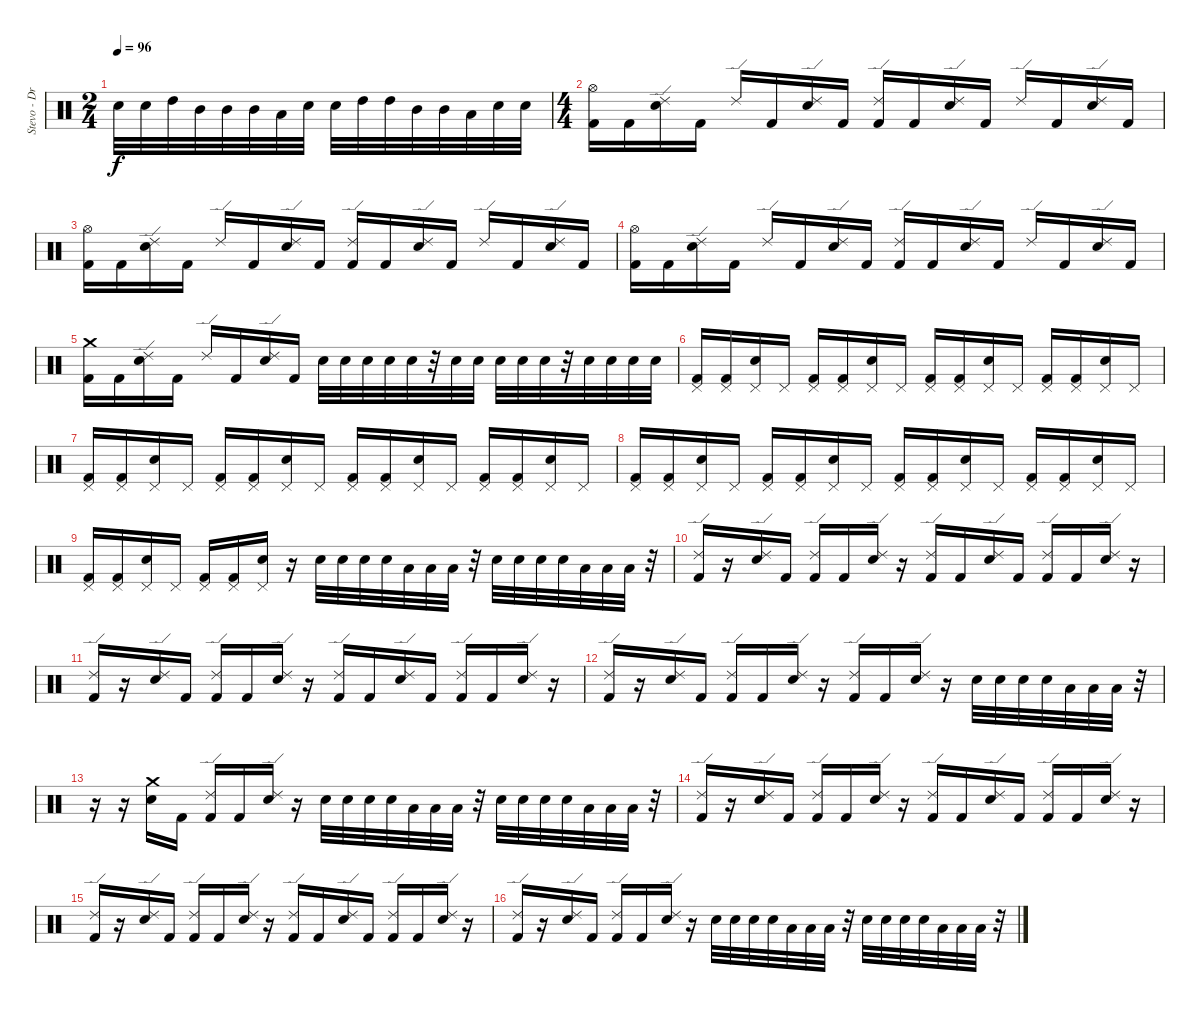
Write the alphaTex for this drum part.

\track ("Stevo - Drums" "Stevo - Dr") {instrument percussion}
\staff {score}
\articulation defaults
\ts (2 4)
\tempo 96
\clef neutral
\ks c "Electric Snare (hit)".32{dy f} "Electric Snare (hit)".32 "High Tom (hit)".32 "Mid Tom (hit)".32 "Mid Tom (hit)".32 "Mid Tom (hit)".32 "Low Tom (hit)".32 "Electric Snare (hit)".32 "Electric Snare (hit)".32 "High Tom (hit)".32 "High Tom (hit)".32 "Mid Tom (hit)".32 "Mid Tom (hit)".32 "Low Tom (hit)".32 "Electric Snare (hit)".32 "Electric Snare (hit)".32
|
\ts (4 4)
("Hi-Hat (open)" "Kick (hit) 2").16 "Kick (hit) 2".16 ("Ride (edge) 2" "Electric Snare (hit)").16 "Kick (hit) 2".16 "Ride (edge) 2".16 "Kick (hit) 2".16 ("Ride (edge) 2" "Electric Snare (hit)").16 "Kick (hit) 2".16 ("Ride (edge) 2" "Kick (hit) 2").16 "Kick (hit) 2".16 ("Ride (edge) 2" "Electric Snare (hit)").16 "Kick (hit) 2".16 "Ride (edge) 2".16 "Kick (hit) 2".16 ("Ride (edge) 2" "Electric Snare (hit)").16 "Kick (hit) 2".16 |
("Hi-Hat (open)" "Kick (hit) 2").16 "Kick (hit) 2".16 ("Ride (edge) 2" "Electric Snare (hit)").16 "Kick (hit) 2".16 "Ride (edge) 2".16 "Kick (hit) 2".16 ("Ride (edge) 2" "Electric Snare (hit)").16 "Kick (hit) 2".16 ("Ride (edge) 2" "Kick (hit) 2").16 "Kick (hit) 2".16 ("Ride (edge) 2" "Electric Snare (hit)").16 "Kick (hit) 2".16 "Ride (edge) 2".16 "Kick (hit) 2".16 ("Ride (edge) 2" "Electric Snare (hit)").16 "Kick (hit) 2".16 |
("Hi-Hat (open)" "Kick (hit) 2").16 "Kick (hit) 2".16 ("Ride (edge) 2" "Electric Snare (hit)").16 "Kick (hit) 2".16 "Ride (edge) 2".16 "Kick (hit) 2".16 ("Ride (edge) 2" "Electric Snare (hit)").16 "Kick (hit) 2".16 ("Ride (edge) 2" "Kick (hit) 2").16 "Kick (hit) 2".16 ("Ride (edge) 2" "Electric Snare (hit)").16 "Kick (hit) 2".16 "Ride (edge) 2".16 "Kick (hit) 2".16 ("Ride (edge) 2" "Electric Snare (hit)").16 "Kick (hit) 2".16 |
("Crash medium (hit)" "Kick (hit) 2").16 "Kick (hit) 2".16 ("Ride (edge) 2" "Electric Snare (hit)").16 "Kick (hit) 2".16 "Ride (edge) 2".16 "Kick (hit) 2".16 ("Ride (edge) 2" "Electric Snare (hit)").16 "Kick (hit) 2".16 "Electric Snare (hit)".32 "Electric Snare (hit)".32 "Electric Snare (hit)".32 "Electric Snare (hit)".32 "Electric Snare (hit)".32 r.32 "Electric Snare (hit)".32 "Electric Snare (hit)".32 "Electric Snare (hit)".32 "Electric Snare (hit)".32 "Electric Snare (hit)".32 r.32 "Electric Snare (hit)".32 "Electric Snare (hit)".32 "Electric Snare (hit)".32 "Electric Snare (hit)".32 |
("Pedal Hi-Hat (hit)" "Kick (hit) 2").16 ("Pedal Hi-Hat (hit)" "Kick (hit) 2").16 ("Pedal Hi-Hat (hit)" "Electric Snare (hit)").16 "Pedal Hi-Hat (hit)".16 ("Pedal Hi-Hat (hit)" "Kick (hit) 2").16 ("Pedal Hi-Hat (hit)" "Kick (hit) 2").16 ("Pedal Hi-Hat (hit)" "Electric Snare (hit)").16 "Pedal Hi-Hat (hit)".16 ("Pedal Hi-Hat (hit)" "Kick (hit) 2").16 ("Pedal Hi-Hat (hit)" "Kick (hit) 2").16 ("Pedal Hi-Hat (hit)" "Electric Snare (hit)").16 "Pedal Hi-Hat (hit)".16 ("Pedal Hi-Hat (hit)" "Kick (hit) 2").16 ("Pedal Hi-Hat (hit)" "Kick (hit) 2").16 ("Pedal Hi-Hat (hit)" "Electric Snare (hit)").16 "Pedal Hi-Hat (hit)".16 |
("Pedal Hi-Hat (hit)" "Kick (hit) 2").16 ("Pedal Hi-Hat (hit)" "Kick (hit) 2").16 ("Pedal Hi-Hat (hit)" "Electric Snare (hit)").16 "Pedal Hi-Hat (hit)".16 ("Pedal Hi-Hat (hit)" "Kick (hit) 2").16 ("Pedal Hi-Hat (hit)" "Kick (hit) 2").16 ("Pedal Hi-Hat (hit)" "Electric Snare (hit)").16 "Pedal Hi-Hat (hit)".16 ("Pedal Hi-Hat (hit)" "Kick (hit) 2").16 ("Pedal Hi-Hat (hit)" "Kick (hit) 2").16 ("Pedal Hi-Hat (hit)" "Electric Snare (hit)").16 "Pedal Hi-Hat (hit)".16 ("Pedal Hi-Hat (hit)" "Kick (hit) 2").16 ("Pedal Hi-Hat (hit)" "Kick (hit) 2").16 ("Pedal Hi-Hat (hit)" "Electric Snare (hit)").16 "Pedal Hi-Hat (hit)".16 |
("Pedal Hi-Hat (hit)" "Kick (hit) 2").16 ("Pedal Hi-Hat (hit)" "Kick (hit) 2").16 ("Pedal Hi-Hat (hit)" "Electric Snare (hit)").16 "Pedal Hi-Hat (hit)".16 ("Pedal Hi-Hat (hit)" "Kick (hit) 2").16 ("Pedal Hi-Hat (hit)" "Kick (hit) 2").16 ("Pedal Hi-Hat (hit)" "Electric Snare (hit)").16 "Pedal Hi-Hat (hit)".16 ("Pedal Hi-Hat (hit)" "Kick (hit) 2").16 ("Pedal Hi-Hat (hit)" "Kick (hit) 2").16 ("Pedal Hi-Hat (hit)" "Electric Snare (hit)").16 "Pedal Hi-Hat (hit)".16 ("Pedal Hi-Hat (hit)" "Kick (hit) 2").16 ("Pedal Hi-Hat (hit)" "Kick (hit) 2").16 ("Pedal Hi-Hat (hit)" "Electric Snare (hit)").16 "Pedal Hi-Hat (hit)".16 |
("Pedal Hi-Hat (hit)" "Kick (hit) 2").16 ("Pedal Hi-Hat (hit)" "Kick (hit) 2").16 ("Pedal Hi-Hat (hit)" "Electric Snare (hit)").16 "Pedal Hi-Hat (hit)".16 ("Pedal Hi-Hat (hit)" "Kick (hit) 2").16 ("Pedal Hi-Hat (hit)" "Kick (hit) 2").16 ("Pedal Hi-Hat (hit)" "Electric Snare (hit)").16 r.16 "Electric Snare (hit)".32 "Electric Snare (hit)".32 "Snare (hit) 2".32 "Snare (hit) 2".32 "Low Tom (hit)".32 "Low Tom (hit)".32 "Low Tom (hit)".32 r.32 "Electric Snare (hit)".32 "Electric Snare (hit)".32 "Snare (hit) 2".32 "Snare (hit) 2".32 "Low Tom (hit)".32 "Low Tom (hit)".32 "Low Tom (hit)".32 r.32 |
("Ride (edge) 2" "Kick (hit) 2").16 r.16 ("Ride (edge) 2" "Electric Snare (hit)").16 "Kick (hit) 2".16 ("Ride (edge) 2" "Kick (hit) 2").16 "Kick (hit) 2".16 ("Ride (edge) 2" "Electric Snare (hit)").16 r.16 ("Ride (edge) 2" "Kick (hit) 2").16 "Kick (hit) 2".16 ("Ride (edge) 2" "Electric Snare (hit)").16 "Kick (hit) 2".16 ("Ride (edge) 2" "Kick (hit) 2").16 "Kick (hit) 2".16 ("Ride (edge) 2" "Electric Snare (hit)").16 r.16 |
("Ride (edge) 2" "Kick (hit) 2").16 r.16 ("Ride (edge) 2" "Electric Snare (hit)").16 "Kick (hit) 2".16 ("Ride (edge) 2" "Kick (hit) 2").16 "Kick (hit) 2".16 ("Ride (edge) 2" "Electric Snare (hit)").16 r.16 ("Ride (edge) 2" "Kick (hit) 2").16 "Kick (hit) 2".16 ("Ride (edge) 2" "Electric Snare (hit)").16 "Kick (hit) 2".16 ("Ride (edge) 2" "Kick (hit) 2").16 "Kick (hit) 2".16 ("Ride (edge) 2" "Electric Snare (hit)").16 r.16 |
("Ride (edge) 2" "Kick (hit) 2").16 r.16 ("Ride (edge) 2" "Electric Snare (hit)").16 "Kick (hit) 2".16 ("Ride (edge) 2" "Kick (hit) 2").16 "Kick (hit) 2".16 ("Ride (edge) 2" "Electric Snare (hit)").16 r.16 ("Ride (edge) 2" "Kick (hit) 2").16 "Kick (hit) 2".16 ("Ride (edge) 2" "Electric Snare (hit)").16 r.16 "Electric Snare (hit)".32 "Electric Snare (hit)".32 "Snare (hit) 2".32 "Snare (hit) 2".32 "Low Tom (hit)".32 "Low Tom (hit)".32 "Low Tom (hit)".32 r.32 |
r.16 r.16 ("Crash medium (hit)" "Electric Snare (hit)").16 "Kick (hit) 2".16 ("Ride (edge) 2" "Kick (hit) 2").16 "Kick (hit) 2".16 ("Ride (edge) 2" "Electric Snare (hit)").16 r.16 "Electric Snare (hit)".32 "Electric Snare (hit)".32 "Snare (hit) 2".32 "Snare (hit) 2".32 "Low Tom (hit)".32 "Low Tom (hit)".32 "Low Tom (hit)".32 r.32 "Electric Snare (hit)".32 "Electric Snare (hit)".32 "Snare (hit) 2".32 "Snare (hit) 2".32 "Low Tom (hit)".32 "Low Tom (hit)".32 "Low Tom (hit)".32 r.32 |
("Ride (edge) 2" "Kick (hit) 2").16 r.16 ("Ride (edge) 2" "Electric Snare (hit)").16 "Kick (hit) 2".16 ("Ride (edge) 2" "Kick (hit) 2").16 "Kick (hit) 2".16 ("Ride (edge) 2" "Electric Snare (hit)").16 r.16 ("Ride (edge) 2" "Kick (hit) 2").16 "Kick (hit) 2".16 ("Ride (edge) 2" "Electric Snare (hit)").16 "Kick (hit) 2".16 ("Ride (edge) 2" "Kick (hit) 2").16 "Kick (hit) 2".16 ("Ride (edge) 2" "Electric Snare (hit)").16 r.16 |
("Ride (edge) 2" "Kick (hit) 2").16 r.16 ("Ride (edge) 2" "Electric Snare (hit)").16 "Kick (hit) 2".16 ("Ride (edge) 2" "Kick (hit) 2").16 "Kick (hit) 2".16 ("Ride (edge) 2" "Electric Snare (hit)").16 r.16 ("Ride (edge) 2" "Kick (hit) 2").16 "Kick (hit) 2".16 ("Ride (edge) 2" "Electric Snare (hit)").16 "Kick (hit) 2".16 ("Ride (edge) 2" "Kick (hit) 2").16 "Kick (hit) 2".16 ("Ride (edge) 2" "Electric Snare (hit)").16 r.16 |
("Ride (edge) 2" "Kick (hit) 2").16 r.16 ("Ride (edge) 2" "Electric Snare (hit)").16 "Kick (hit) 2".16 ("Ride (edge) 2" "Kick (hit) 2").16 "Kick (hit) 2".16 ("Ride (edge) 2" "Electric Snare (hit)").16 r.16 "Electric Snare (hit)".32 "Electric Snare (hit)".32 "Snare (hit) 2".32 "Snare (hit) 2".32 "Low Tom (hit)".32 "Low Tom (hit)".32 "Low Tom (hit)".32 r.32 "Electric Snare (hit)".32 "Electric Snare (hit)".32 "Snare (hit) 2".32 "Snare (hit) 2".32 "Low Tom (hit)".32 "Low Tom (hit)".32 "Low Tom (hit)".32 r.32
